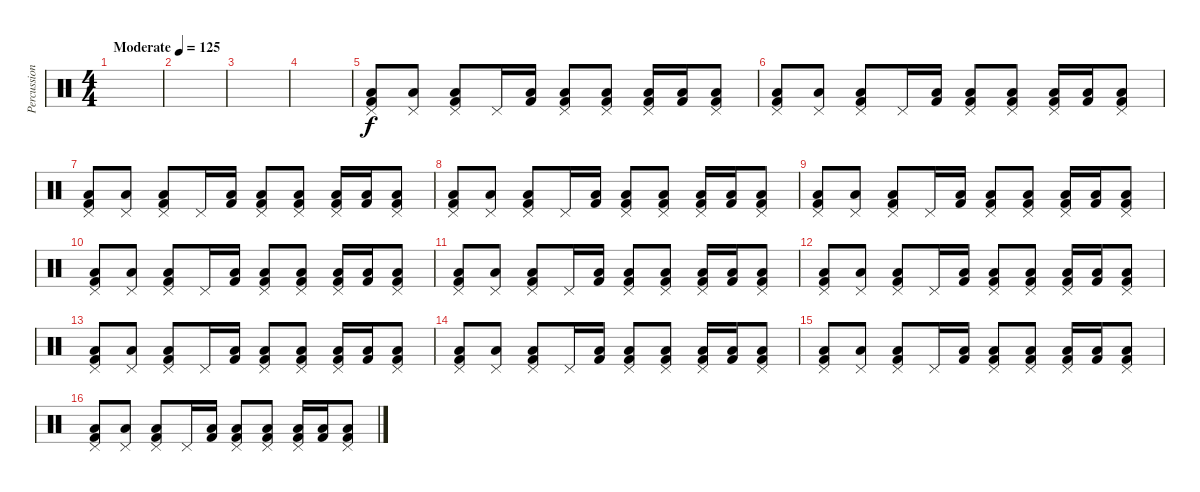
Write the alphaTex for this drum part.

\track ("Percussion" "Percussion") {instrument percussion}
\staff {score}
\articulation defaults
\ts (4 4)
\tempo (125 "Moderate")
\clef neutral
\ks c
|
|
|
|
("Pedal Hi-Hat (hit)" "Low Floor Tom (hit)" "Kick (hit) 2").8 ("Pedal Hi-Hat (hit)" "Low Tom (hit)").8 ("Pedal Hi-Hat (hit)" "Low Floor Tom (hit)" "Kick (hit) 2").8 "Pedal Hi-Hat (hit)".16 ("Low Floor Tom (hit)" "Kick (hit) 2").16 ("Pedal Hi-Hat (hit)" "Low Tom (hit)" "Kick (hit) 2").8 ("Pedal Hi-Hat (hit)" "Low Floor Tom (hit)" "Kick (hit) 2").8 ("Pedal Hi-Hat (hit)" "Low Floor Tom (hit)" "Kick (hit) 2").16 ("Low Tom (hit)" "Kick (hit) 2").16 ("Pedal Hi-Hat (hit)" "Low Floor Tom (hit)" "Kick (hit) 2").8 |
("Pedal Hi-Hat (hit)" "Low Floor Tom (hit)" "Kick (hit) 2").8 ("Pedal Hi-Hat (hit)" "Low Tom (hit)").8 ("Pedal Hi-Hat (hit)" "Low Floor Tom (hit)" "Kick (hit) 2").8 "Pedal Hi-Hat (hit)".16 ("Low Floor Tom (hit)" "Kick (hit) 2").16 ("Pedal Hi-Hat (hit)" "Low Tom (hit)" "Kick (hit) 2").8 ("Pedal Hi-Hat (hit)" "Low Floor Tom (hit)" "Kick (hit) 2").8 ("Pedal Hi-Hat (hit)" "Low Floor Tom (hit)" "Kick (hit) 2").16 ("Low Tom (hit)" "Kick (hit) 2").16 ("Pedal Hi-Hat (hit)" "Low Floor Tom (hit)" "Kick (hit) 2").8 |
("Pedal Hi-Hat (hit)" "Low Floor Tom (hit)" "Kick (hit) 2").8 ("Pedal Hi-Hat (hit)" "Low Tom (hit)").8 ("Pedal Hi-Hat (hit)" "Low Floor Tom (hit)" "Kick (hit) 2").8 "Pedal Hi-Hat (hit)".16 ("Low Floor Tom (hit)" "Kick (hit) 2").16 ("Pedal Hi-Hat (hit)" "Low Tom (hit)" "Kick (hit) 2").8 ("Pedal Hi-Hat (hit)" "Low Floor Tom (hit)" "Kick (hit) 2").8 ("Pedal Hi-Hat (hit)" "Low Floor Tom (hit)" "Kick (hit) 2").16 ("Low Tom (hit)" "Kick (hit) 2").16 ("Pedal Hi-Hat (hit)" "Low Floor Tom (hit)" "Kick (hit) 2").8 |
("Pedal Hi-Hat (hit)" "Low Floor Tom (hit)" "Kick (hit) 2").8 ("Pedal Hi-Hat (hit)" "Low Tom (hit)").8 ("Pedal Hi-Hat (hit)" "Low Floor Tom (hit)" "Kick (hit) 2").8 "Pedal Hi-Hat (hit)".16 ("Low Floor Tom (hit)" "Kick (hit) 2").16 ("Pedal Hi-Hat (hit)" "Low Tom (hit)" "Kick (hit) 2").8 ("Pedal Hi-Hat (hit)" "Low Floor Tom (hit)" "Kick (hit) 2").8 ("Pedal Hi-Hat (hit)" "Low Floor Tom (hit)" "Kick (hit) 2").16 ("Low Tom (hit)" "Kick (hit) 2").16 ("Pedal Hi-Hat (hit)" "Low Floor Tom (hit)" "Kick (hit) 2").8 |
("Pedal Hi-Hat (hit)" "Low Floor Tom (hit)" "Kick (hit) 2").8 ("Pedal Hi-Hat (hit)" "Low Tom (hit)").8 ("Pedal Hi-Hat (hit)" "Low Floor Tom (hit)" "Kick (hit) 2").8 "Pedal Hi-Hat (hit)".16 ("Low Floor Tom (hit)" "Kick (hit) 2").16 ("Pedal Hi-Hat (hit)" "Low Tom (hit)" "Kick (hit) 2").8 ("Pedal Hi-Hat (hit)" "Low Floor Tom (hit)" "Kick (hit) 2").8 ("Pedal Hi-Hat (hit)" "Low Floor Tom (hit)" "Kick (hit) 2").16 ("Low Tom (hit)" "Kick (hit) 2").16 ("Pedal Hi-Hat (hit)" "Low Floor Tom (hit)" "Kick (hit) 2").8 |
("Pedal Hi-Hat (hit)" "Low Floor Tom (hit)" "Kick (hit) 2").8 ("Pedal Hi-Hat (hit)" "Low Tom (hit)").8 ("Pedal Hi-Hat (hit)" "Low Floor Tom (hit)" "Kick (hit) 2").8 "Pedal Hi-Hat (hit)".16 ("Low Floor Tom (hit)" "Kick (hit) 2").16 ("Pedal Hi-Hat (hit)" "Low Tom (hit)" "Kick (hit) 2").8 ("Pedal Hi-Hat (hit)" "Low Floor Tom (hit)" "Kick (hit) 2").8 ("Pedal Hi-Hat (hit)" "Low Floor Tom (hit)" "Kick (hit) 2").16 ("Low Tom (hit)" "Kick (hit) 2").16 ("Pedal Hi-Hat (hit)" "Low Floor Tom (hit)" "Kick (hit) 2").8 |
("Pedal Hi-Hat (hit)" "Low Floor Tom (hit)" "Kick (hit) 2").8 ("Pedal Hi-Hat (hit)" "Low Tom (hit)").8 ("Pedal Hi-Hat (hit)" "Low Floor Tom (hit)" "Kick (hit) 2").8 "Pedal Hi-Hat (hit)".16 ("Low Floor Tom (hit)" "Kick (hit) 2").16 ("Pedal Hi-Hat (hit)" "Low Tom (hit)" "Kick (hit) 2").8 ("Pedal Hi-Hat (hit)" "Low Floor Tom (hit)" "Kick (hit) 2").8 ("Pedal Hi-Hat (hit)" "Low Floor Tom (hit)" "Kick (hit) 2").16 ("Low Tom (hit)" "Kick (hit) 2").16 ("Pedal Hi-Hat (hit)" "Low Floor Tom (hit)" "Kick (hit) 2").8 |
("Pedal Hi-Hat (hit)" "Low Floor Tom (hit)" "Kick (hit) 2").8 ("Pedal Hi-Hat (hit)" "Low Tom (hit)").8 ("Pedal Hi-Hat (hit)" "Low Floor Tom (hit)" "Kick (hit) 2").8 "Pedal Hi-Hat (hit)".16 ("Low Floor Tom (hit)" "Kick (hit) 2").16 ("Pedal Hi-Hat (hit)" "Low Tom (hit)" "Kick (hit) 2").8 ("Pedal Hi-Hat (hit)" "Low Floor Tom (hit)" "Kick (hit) 2").8 ("Pedal Hi-Hat (hit)" "Low Floor Tom (hit)" "Kick (hit) 2").16 ("Low Tom (hit)" "Kick (hit) 2").16 ("Pedal Hi-Hat (hit)" "Low Floor Tom (hit)" "Kick (hit) 2").8 |
("Pedal Hi-Hat (hit)" "Low Floor Tom (hit)" "Kick (hit) 2").8 ("Pedal Hi-Hat (hit)" "Low Tom (hit)").8 ("Pedal Hi-Hat (hit)" "Low Floor Tom (hit)" "Kick (hit) 2").8 "Pedal Hi-Hat (hit)".16 ("Low Floor Tom (hit)" "Kick (hit) 2").16 ("Pedal Hi-Hat (hit)" "Low Tom (hit)" "Kick (hit) 2").8 ("Pedal Hi-Hat (hit)" "Low Floor Tom (hit)" "Kick (hit) 2").8 ("Pedal Hi-Hat (hit)" "Low Floor Tom (hit)" "Kick (hit) 2").16 ("Low Tom (hit)" "Kick (hit) 2").16 ("Pedal Hi-Hat (hit)" "Low Floor Tom (hit)" "Kick (hit) 2").8 |
("Pedal Hi-Hat (hit)" "Low Floor Tom (hit)" "Kick (hit) 2").8 ("Pedal Hi-Hat (hit)" "Low Tom (hit)").8 ("Pedal Hi-Hat (hit)" "Low Floor Tom (hit)" "Kick (hit) 2").8 "Pedal Hi-Hat (hit)".16 ("Low Floor Tom (hit)" "Kick (hit) 2").16 ("Pedal Hi-Hat (hit)" "Low Tom (hit)" "Kick (hit) 2").8 ("Pedal Hi-Hat (hit)" "Low Floor Tom (hit)" "Kick (hit) 2").8 ("Pedal Hi-Hat (hit)" "Low Floor Tom (hit)" "Kick (hit) 2").16 ("Low Tom (hit)" "Kick (hit) 2").16 ("Pedal Hi-Hat (hit)" "Low Floor Tom (hit)" "Kick (hit) 2").8 |
("Pedal Hi-Hat (hit)" "Low Floor Tom (hit)" "Kick (hit) 2").8 ("Pedal Hi-Hat (hit)" "Low Tom (hit)").8 ("Pedal Hi-Hat (hit)" "Low Floor Tom (hit)" "Kick (hit) 2").8 "Pedal Hi-Hat (hit)".16 ("Low Floor Tom (hit)" "Kick (hit) 2").16 ("Pedal Hi-Hat (hit)" "Low Tom (hit)" "Kick (hit) 2").8 ("Pedal Hi-Hat (hit)" "Low Floor Tom (hit)" "Kick (hit) 2").8 ("Pedal Hi-Hat (hit)" "Low Floor Tom (hit)" "Kick (hit) 2").16 ("Low Tom (hit)" "Kick (hit) 2").16 ("Pedal Hi-Hat (hit)" "Low Floor Tom (hit)" "Kick (hit) 2").8 |
("Pedal Hi-Hat (hit)" "Low Floor Tom (hit)" "Kick (hit) 2").8 ("Pedal Hi-Hat (hit)" "Low Tom (hit)").8 ("Pedal Hi-Hat (hit)" "Low Floor Tom (hit)" "Kick (hit) 2").8 "Pedal Hi-Hat (hit)".16 ("Low Floor Tom (hit)" "Kick (hit) 2").16 ("Pedal Hi-Hat (hit)" "Low Tom (hit)" "Kick (hit) 2").8 ("Pedal Hi-Hat (hit)" "Low Floor Tom (hit)" "Kick (hit) 2").8 ("Pedal Hi-Hat (hit)" "Low Floor Tom (hit)" "Kick (hit) 2").16 ("Low Tom (hit)" "Kick (hit) 2").16 ("Pedal Hi-Hat (hit)" "Low Floor Tom (hit)" "Kick (hit) 2").8
